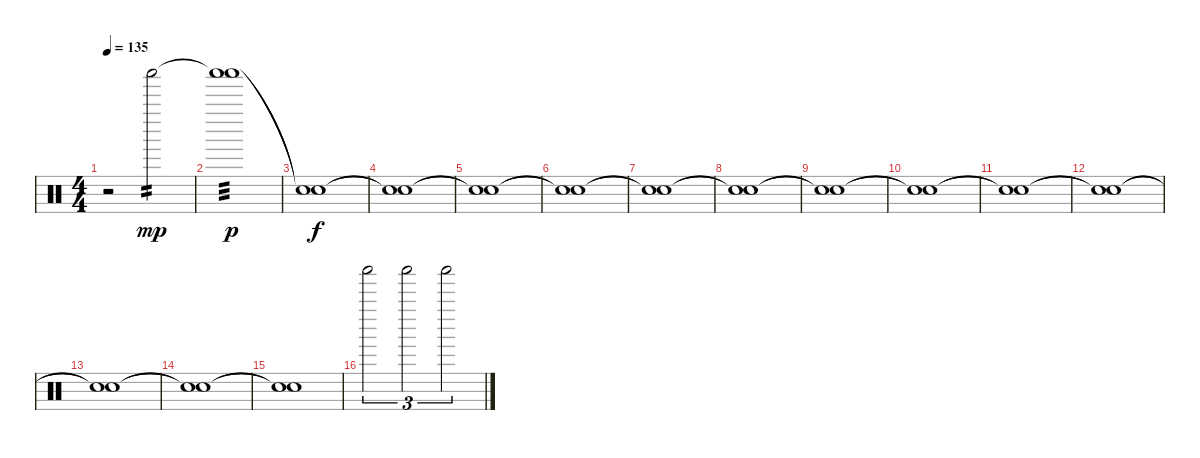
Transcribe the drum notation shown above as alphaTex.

\track "" {instrument percussion}
\staff {score}
\articulation defaults
\ts (4 4)
\tempo 135
\clef neutral
\ks c
r.2{dy mp} "Shaker (hit)".2{tp 2} |
("Shaker (hit)"{t} "Shaker (hit)").1{tp 3 dy p} |
("Snare (hit)"{t} "Snare (hit)"{t}).1{dy f} |
("Snare (hit)"{t} "Snare (hit)"{t}).1 |
("Snare (hit)"{t} "Snare (hit)"{t}).1 |
("Snare (hit)"{t} "Snare (hit)"{t}).1 |
("Snare (hit)"{t} "Snare (hit)"{t}).1 |
("Snare (hit)"{t} "Snare (hit)"{t}).1 |
("Snare (hit)"{t} "Snare (hit)"{t}).1 |
("Snare (hit)"{t} "Snare (hit)"{t}).1 |
("Snare (hit)"{t} "Snare (hit)"{t}).1 |
("Snare (hit)"{t} "Snare (hit)"{t}).1 |
("Snare (hit)"{t} "Snare (hit)"{t}).1 |
("Snare (hit)"{t} "Snare (hit)"{t}).1 |
("Snare (hit)"{t} "Snare (hit)"{t}).1 |
"Shaker (hit)".2{tu (3 2)} "Shaker (hit)".2{tu (3 2)} "Shaker (hit)".2{tu (3 2)}
